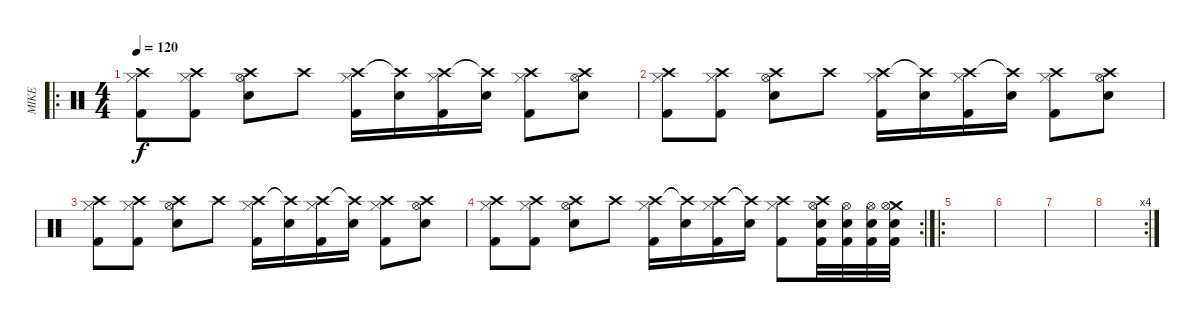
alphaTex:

\track ("MIKE" "MIKE") {instrument percussion}
\staff {score}
\articulation defaults
\ro
\ts (4 4)
\tempo 120
\clef neutral
\ks c
("Crash high (hit)" "Hi-Hat (closed)" "Kick (hit) 2").8{dy f} ("Crash high (hit)" "Hi-Hat (closed)" "Kick (hit) 2").8 ("Crash high (hit)" "Hi-Hat (open)" "Electric Snare (hit)").8 "Crash high (hit)".8 ("Crash high (hit)" "Hi-Hat (closed)" "Kick (hit) 2").16 ("Crash high (hit)"{t} "Snare (hit) 2").16 ("Crash high (hit)" "Hi-Hat (closed)" "Kick (hit) 2").16 ("Crash high (hit)"{t} "Snare (hit) 2").16 ("Crash high (hit)" "Hi-Hat (closed)" "Kick (hit) 2").8 ("Crash high (hit)" "Hi-Hat (open)" "Electric Snare (hit)").8 |
("Crash high (hit)" "Hi-Hat (closed)" "Kick (hit) 2").8 ("Crash high (hit)" "Hi-Hat (closed)" "Kick (hit) 2").8 ("Crash high (hit)" "Hi-Hat (open)" "Electric Snare (hit)").8 "Crash high (hit)".8 ("Crash high (hit)" "Hi-Hat (closed)" "Kick (hit) 2").16 ("Crash high (hit)"{t} "Snare (hit) 2").16 ("Crash high (hit)" "Hi-Hat (closed)" "Kick (hit) 2").16 ("Crash high (hit)"{t} "Snare (hit) 2").16 ("Crash high (hit)" "Hi-Hat (closed)" "Kick (hit) 2").8 ("Crash high (hit)" "Hi-Hat (open)" "Electric Snare (hit)").8 |
("Crash high (hit)" "Hi-Hat (closed)" "Kick (hit) 2").8 ("Crash high (hit)" "Hi-Hat (closed)" "Kick (hit) 2").8 ("Crash high (hit)" "Hi-Hat (open)" "Electric Snare (hit)").8 "Crash high (hit)".8 ("Crash high (hit)" "Hi-Hat (closed)" "Kick (hit) 2").16 ("Crash high (hit)"{t} "Snare (hit) 2").16 ("Crash high (hit)" "Hi-Hat (closed)" "Kick (hit) 2").16 ("Crash high (hit)"{t} "Snare (hit) 2").16 ("Crash high (hit)" "Hi-Hat (closed)" "Kick (hit) 2").8 ("Crash high (hit)" "Hi-Hat (open)" "Electric Snare (hit)").8 |
\rc 2
("Crash high (hit)" "Hi-Hat (closed)" "Kick (hit) 2").8 ("Crash high (hit)" "Hi-Hat (closed)" "Kick (hit) 2").8 ("Crash high (hit)" "Hi-Hat (open)" "Electric Snare (hit)").8 "Crash high (hit)".8 ("Crash high (hit)" "Hi-Hat (closed)" "Kick (hit) 2").16 ("Crash high (hit)"{t} "Snare (hit) 2").16 ("Crash high (hit)" "Hi-Hat (closed)" "Kick (hit) 2").16 ("Crash high (hit)"{t} "Snare (hit) 2").16 ("Crash high (hit)" "Hi-Hat (closed)" "Kick (hit) 2").8 ("Crash high (hit)" "Kick (hit) 2" "Hi-Hat (open)" "Electric Snare (hit)").32 ("Kick (hit) 2" "Hi-Hat (open)" "Electric Snare (hit)").32 ("Kick (hit) 2" "Hi-Hat (open)" "Electric Snare (hit)").32 ("Crash medium (hit)" "Kick (hit) 2" "Hi-Hat (open)" "Electric Snare (hit)").32 |
\ro
|
|
|
\rc 4
